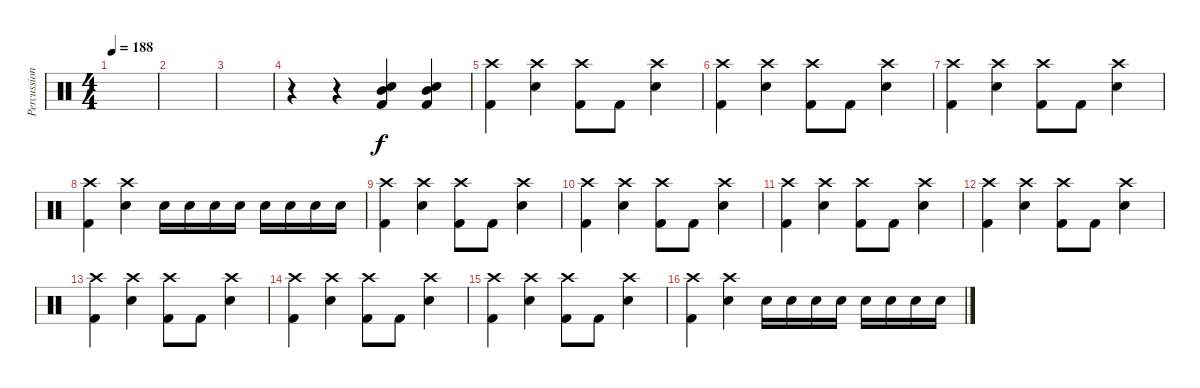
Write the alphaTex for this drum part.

\track ("Percussions" "Percussion") {instrument percussion}
\staff {score}
\articulation defaults
\ts (4 4)
\tempo 188
\clef neutral
\ks c
|
|
|
r.4 r.4 ("Electric Snare (hit)" "Mid Tom (hit)" "Kick (hit) 2").4 ("Electric Snare (hit)" "Mid Tom (hit)" "Kick (hit) 2").4 |
("Kick (hit) 2" "Crash high (hit)").4 ("Electric Snare (hit)" "Crash high (hit)").4 ("Kick (hit) 2" "Crash high (hit)").8 "Kick (hit) 2".8 ("Electric Snare (hit)" "Crash high (hit)").4 |
("Kick (hit) 2" "Crash high (hit)").4 ("Electric Snare (hit)" "Crash high (hit)").4 ("Kick (hit) 2" "Crash high (hit)").8 "Kick (hit) 2".8 ("Electric Snare (hit)" "Crash high (hit)").4 |
("Kick (hit) 2" "Crash high (hit)").4 ("Electric Snare (hit)" "Crash high (hit)").4 ("Kick (hit) 2" "Crash high (hit)").8 "Kick (hit) 2".8 ("Electric Snare (hit)" "Crash high (hit)").4 |
("Kick (hit) 2" "Crash high (hit)").4 ("Electric Snare (hit)" "Crash high (hit)").4 "Electric Snare (hit)".16 "Electric Snare (hit)".16 "Electric Snare (hit)".16 "Electric Snare (hit)".16 "Electric Snare (hit)".16 "Electric Snare (hit)".16 "Electric Snare (hit)".16 "Electric Snare (hit)".16 |
("Kick (hit) 2" "Crash high (hit)").4 ("Electric Snare (hit)" "Crash high (hit)").4 ("Kick (hit) 2" "Crash high (hit)").8 "Kick (hit) 2".8 ("Electric Snare (hit)" "Crash high (hit)").4 |
("Kick (hit) 2" "Crash high (hit)").4 ("Electric Snare (hit)" "Crash high (hit)").4 ("Kick (hit) 2" "Crash high (hit)").8 "Kick (hit) 2".8 ("Electric Snare (hit)" "Crash high (hit)").4 |
("Kick (hit) 2" "Crash high (hit)").4 ("Electric Snare (hit)" "Crash high (hit)").4 ("Kick (hit) 2" "Crash high (hit)").8 "Kick (hit) 2".8 ("Electric Snare (hit)" "Crash high (hit)").4 |
("Kick (hit) 2" "Crash high (hit)").4 ("Electric Snare (hit)" "Crash high (hit)").4 ("Kick (hit) 2" "Crash high (hit)").8 "Kick (hit) 2".8 ("Electric Snare (hit)" "Crash high (hit)").4 |
("Kick (hit) 2" "Crash high (hit)").4 ("Electric Snare (hit)" "Crash high (hit)").4 ("Kick (hit) 2" "Crash high (hit)").8 "Kick (hit) 2".8 ("Electric Snare (hit)" "Crash high (hit)").4 |
("Kick (hit) 2" "Crash high (hit)").4 ("Electric Snare (hit)" "Crash high (hit)").4 ("Kick (hit) 2" "Crash high (hit)").8 "Kick (hit) 2".8 ("Electric Snare (hit)" "Crash high (hit)").4 |
("Kick (hit) 2" "Crash high (hit)").4 ("Electric Snare (hit)" "Crash high (hit)").4 ("Kick (hit) 2" "Crash high (hit)").8 "Kick (hit) 2".8 ("Electric Snare (hit)" "Crash high (hit)").4 |
("Kick (hit) 2" "Crash high (hit)").4 ("Electric Snare (hit)" "Crash high (hit)").4 "Electric Snare (hit)".16 "Electric Snare (hit)".16 "Electric Snare (hit)".16 "Electric Snare (hit)".16 "Electric Snare (hit)".16 "Electric Snare (hit)".16 "Electric Snare (hit)".16 "Electric Snare (hit)".16
